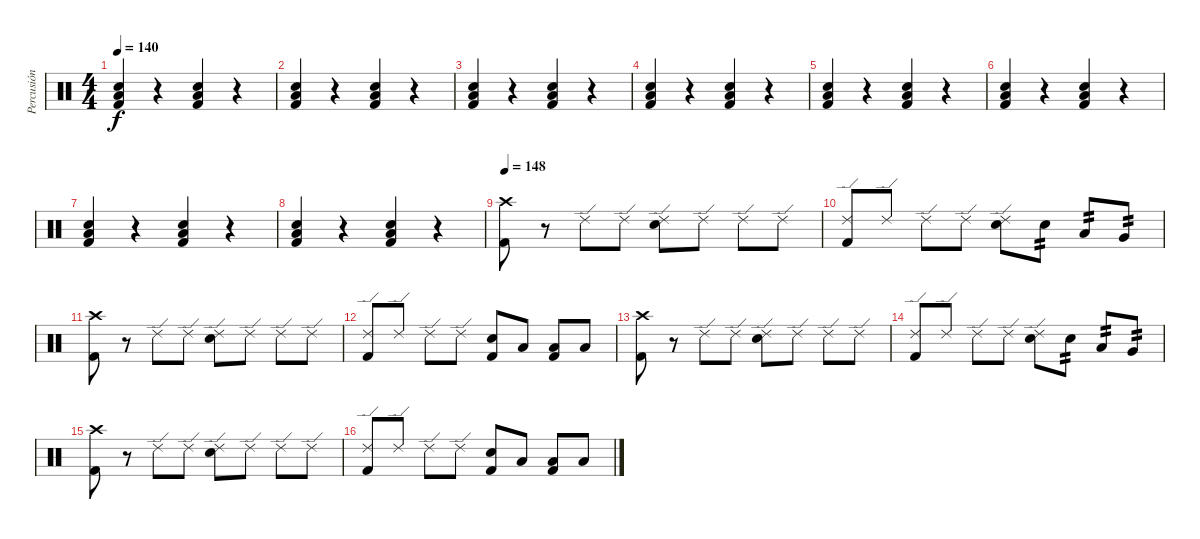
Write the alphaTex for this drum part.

\track ("Percusión" "Percusión") {instrument percussion}
\staff {score}
\articulation defaults
\ts (4 4)
\tempo 140
\clef neutral
\ks c
("Low Floor Tom (hit)" "Electric Snare (hit)" "Kick (hit) 2").4{dy f} r.4 ("Low Floor Tom (hit)" "Electric Snare (hit)" "Kick (hit) 2").4 r.4 |
("Low Floor Tom (hit)" "Electric Snare (hit)" "Kick (hit) 2").4 r.4 ("Low Floor Tom (hit)" "Electric Snare (hit)" "Kick (hit) 2").4 r.4 |
("Low Floor Tom (hit)" "Electric Snare (hit)" "Kick (hit) 2").4 r.4 ("Low Floor Tom (hit)" "Electric Snare (hit)" "Kick (hit) 2").4 r.4 |
("Low Floor Tom (hit)" "Electric Snare (hit)" "Kick (hit) 2").4 r.4 ("Low Floor Tom (hit)" "Electric Snare (hit)" "Kick (hit) 2").4 r.4 |
("Low Floor Tom (hit)" "Electric Snare (hit)" "Kick (hit) 2").4 r.4 ("Low Floor Tom (hit)" "Electric Snare (hit)" "Kick (hit) 2").4 r.4 |
("Low Floor Tom (hit)" "Electric Snare (hit)" "Kick (hit) 2").4 r.4 ("Low Floor Tom (hit)" "Electric Snare (hit)" "Kick (hit) 2").4 r.4 |
("Low Floor Tom (hit)" "Electric Snare (hit)" "Kick (hit) 2").4 r.4 ("Low Floor Tom (hit)" "Electric Snare (hit)" "Kick (hit) 2").4 r.4 |
("Low Floor Tom (hit)" "Electric Snare (hit)" "Kick (hit) 2").4 r.4 ("Low Floor Tom (hit)" "Electric Snare (hit)" "Kick (hit) 2").4 r.4 |
\tempo 148
("Crash high (hit)" "Kick (hit) 2").8 r.8 "Ride (edge) 2".8 "Ride (edge) 2".8 ("Ride (edge) 2" "Electric Snare (hit)").8 "Ride (edge) 2".8 "Ride (edge) 2".8 "Ride (edge) 2".8 |
("Ride (edge) 2" "Kick (hit) 2").8 "Ride (edge) 2".8 "Ride (edge) 2".8 "Ride (edge) 2".8 ("Ride (edge) 2" "Electric Snare (hit)").8 "Electric Snare (hit)".8{tp 2} "Low Tom (hit)".8{tp 2} "Very Low Tom (hit)".8{tp 2} |
("Crash high (hit)" "Kick (hit) 2").8 r.8 "Ride (edge) 2".8 "Ride (edge) 2".8 ("Ride (edge) 2" "Electric Snare (hit)").8 "Ride (edge) 2".8 "Ride (edge) 2".8 "Ride (edge) 2".8 |
("Ride (edge) 2" "Kick (hit) 2").8 "Ride (edge) 2".8 "Ride (edge) 2".8 "Ride (edge) 2".8 ("Electric Snare (hit)" "Kick (hit) 2").8 "Low Floor Tom (hit)".8 ("Low Tom (hit)" "Kick (hit) 2").8 "Low Floor Tom (hit)".8 |
("Crash high (hit)" "Kick (hit) 2").8 r.8 "Ride (edge) 2".8 "Ride (edge) 2".8 ("Ride (edge) 2" "Electric Snare (hit)").8 "Ride (edge) 2".8 "Ride (edge) 2".8 "Ride (edge) 2".8 |
("Ride (edge) 2" "Kick (hit) 2").8 "Ride (edge) 2".8 "Ride (edge) 2".8 "Ride (edge) 2".8 ("Ride (edge) 2" "Electric Snare (hit)").8 "Electric Snare (hit)".8{tp 2} "Low Tom (hit)".8{tp 2} "Very Low Tom (hit)".8{tp 2} |
("Crash high (hit)" "Kick (hit) 2").8 r.8 "Ride (edge) 2".8 "Ride (edge) 2".8 ("Ride (edge) 2" "Electric Snare (hit)").8 "Ride (edge) 2".8 "Ride (edge) 2".8 "Ride (edge) 2".8 |
("Ride (edge) 2" "Kick (hit) 2").8 "Ride (edge) 2".8 "Ride (edge) 2".8 "Ride (edge) 2".8 ("Electric Snare (hit)" "Kick (hit) 2").8 "Low Floor Tom (hit)".8 ("Low Tom (hit)" "Kick (hit) 2").8 "Low Floor Tom (hit)".8
